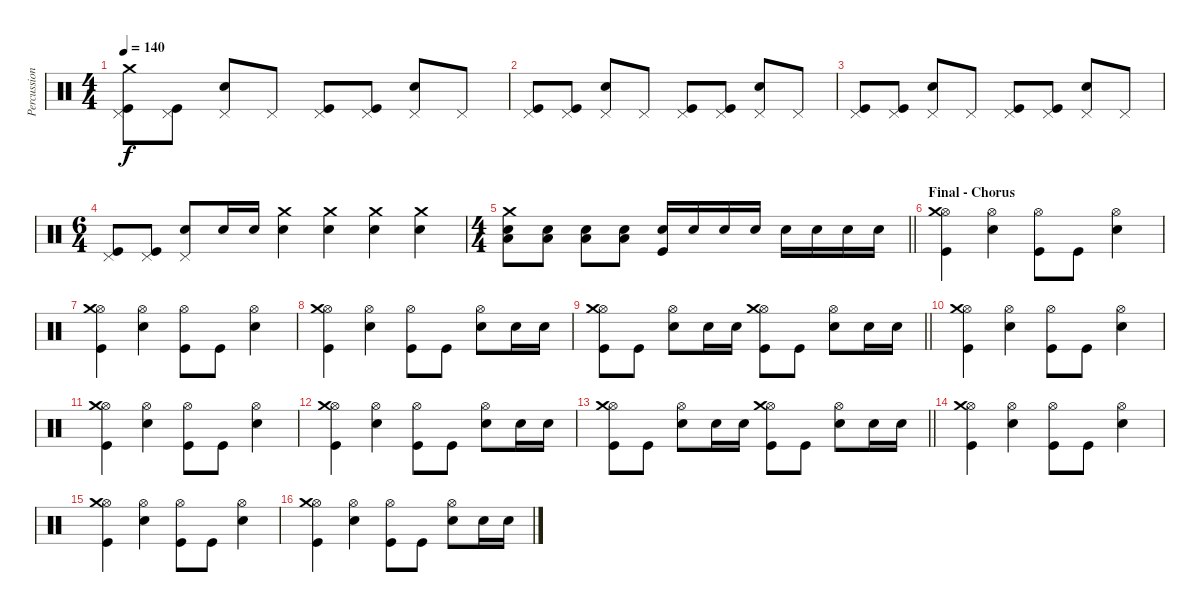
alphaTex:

\track ("Percussion" "Percussion") {instrument percussion}
\staff {score}
\articulation defaults
\ts (4 4)
\tempo 140
\clef neutral
\ks c
("Pedal Hi-Hat (hit)" "Kick (hit)" "Crash medium (hit)").8{dy f} ("Pedal Hi-Hat (hit)" "Kick (hit)").8 ("Pedal Hi-Hat (hit)" "Electric Snare (hit)").8 "Pedal Hi-Hat (hit)".8 ("Pedal Hi-Hat (hit)" "Kick (hit)").8 ("Pedal Hi-Hat (hit)" "Kick (hit)").8 ("Pedal Hi-Hat (hit)" "Electric Snare (hit)").8 "Pedal Hi-Hat (hit)".8 |
("Pedal Hi-Hat (hit)" "Kick (hit)").8 ("Pedal Hi-Hat (hit)" "Kick (hit)").8 ("Pedal Hi-Hat (hit)" "Electric Snare (hit)").8 "Pedal Hi-Hat (hit)".8 ("Pedal Hi-Hat (hit)" "Kick (hit)").8 ("Pedal Hi-Hat (hit)" "Kick (hit)").8 ("Pedal Hi-Hat (hit)" "Electric Snare (hit)").8 "Pedal Hi-Hat (hit)".8 |
("Pedal Hi-Hat (hit)" "Kick (hit)").8 ("Pedal Hi-Hat (hit)" "Kick (hit)").8 ("Pedal Hi-Hat (hit)" "Electric Snare (hit)").8 "Pedal Hi-Hat (hit)".8 ("Pedal Hi-Hat (hit)" "Kick (hit)").8 ("Pedal Hi-Hat (hit)" "Kick (hit)").8 ("Pedal Hi-Hat (hit)" "Electric Snare (hit)").8 "Pedal Hi-Hat (hit)".8 |
\ts (6 4)
("Pedal Hi-Hat (hit)" "Kick (hit)").8 ("Pedal Hi-Hat (hit)" "Kick (hit)").8 ("Pedal Hi-Hat (hit)" "Electric Snare (hit)").8 "Electric Snare (hit)".16 "Electric Snare (hit)".16 ("Electric Snare (hit)" "Crash medium (hit)").4 ("Electric Snare (hit)" "Crash medium (hit)").4 ("Electric Snare (hit)" "Crash medium (hit)").4 ("Electric Snare (hit)" "Crash medium (hit)").4 |
\ts (4 4)
\barLineRight lightlight
("Electric Snare (hit)" "Low Tom (hit)" "Crash medium (hit)").8 ("Electric Snare (hit)" "Low Tom (hit)").8 ("Electric Snare (hit)" "Low Tom (hit)").8 ("Electric Snare (hit)" "Low Tom (hit)").8 ("Electric Snare (hit)" "Kick (hit)").16 "Electric Snare (hit)".16 "Electric Snare (hit)".16 "Electric Snare (hit)".16 "Electric Snare (hit)".16 "Electric Snare (hit)".16 "Electric Snare (hit)".16 "Electric Snare (hit)".16 |
\section ("" "Final - Chorus")
("Hi-Hat (open)" "Kick (hit)" "Crash medium (hit)").4 ("Hi-Hat (open)" "Electric Snare (hit)").4 ("Hi-Hat (open)" "Kick (hit)").8 "Kick (hit)".8 ("Hi-Hat (open)" "Electric Snare (hit)").4 |
("Hi-Hat (open)" "Kick (hit)" "Crash medium (hit)").4 ("Hi-Hat (open)" "Electric Snare (hit)").4 ("Hi-Hat (open)" "Kick (hit)").8 "Kick (hit)".8 ("Hi-Hat (open)" "Electric Snare (hit)").4 |
("Hi-Hat (open)" "Kick (hit)" "Crash medium (hit)").4 ("Hi-Hat (open)" "Electric Snare (hit)").4 ("Hi-Hat (open)" "Kick (hit)").8 "Kick (hit)".8 ("Hi-Hat (open)" "Electric Snare (hit)").8 "Electric Snare (hit)".16 "Electric Snare (hit)".16 |
\barLineRight lightlight
("Hi-Hat (open)" "Kick (hit)" "Crash medium (hit)").8 "Kick (hit)".8 ("Hi-Hat (open)" "Electric Snare (hit)").8 "Electric Snare (hit)".16 "Electric Snare (hit)".16 ("Hi-Hat (open)" "Kick (hit)" "Crash medium (hit)").8 "Kick (hit)".8 ("Hi-Hat (open)" "Electric Snare (hit)").8 "Electric Snare (hit)".16 "Electric Snare (hit)".16 |
("Hi-Hat (open)" "Kick (hit)" "Crash medium (hit)").4 ("Hi-Hat (open)" "Electric Snare (hit)").4 ("Hi-Hat (open)" "Kick (hit)").8 "Kick (hit)".8 ("Hi-Hat (open)" "Electric Snare (hit)").4 |
("Hi-Hat (open)" "Kick (hit)" "Crash medium (hit)").4 ("Hi-Hat (open)" "Electric Snare (hit)").4 ("Hi-Hat (open)" "Kick (hit)").8 "Kick (hit)".8 ("Hi-Hat (open)" "Electric Snare (hit)").4 |
("Hi-Hat (open)" "Kick (hit)" "Crash medium (hit)").4 ("Hi-Hat (open)" "Electric Snare (hit)").4 ("Hi-Hat (open)" "Kick (hit)").8 "Kick (hit)".8 ("Hi-Hat (open)" "Electric Snare (hit)").8 "Electric Snare (hit)".16 "Electric Snare (hit)".16 |
\barLineRight lightlight
("Hi-Hat (open)" "Kick (hit)" "Crash medium (hit)").8 "Kick (hit)".8 ("Hi-Hat (open)" "Electric Snare (hit)").8 "Electric Snare (hit)".16 "Electric Snare (hit)".16 ("Hi-Hat (open)" "Kick (hit)" "Crash medium (hit)").8 "Kick (hit)".8 ("Hi-Hat (open)" "Electric Snare (hit)").8 "Electric Snare (hit)".16 "Electric Snare (hit)".16 |
("Hi-Hat (open)" "Kick (hit)" "Crash medium (hit)").4 ("Hi-Hat (open)" "Electric Snare (hit)").4 ("Hi-Hat (open)" "Kick (hit)").8 "Kick (hit)".8 ("Hi-Hat (open)" "Electric Snare (hit)").4 |
("Hi-Hat (open)" "Kick (hit)" "Crash medium (hit)").4 ("Hi-Hat (open)" "Electric Snare (hit)").4 ("Hi-Hat (open)" "Kick (hit)").8 "Kick (hit)".8 ("Hi-Hat (open)" "Electric Snare (hit)").4 |
("Hi-Hat (open)" "Kick (hit)" "Crash medium (hit)").4 ("Hi-Hat (open)" "Electric Snare (hit)").4 ("Hi-Hat (open)" "Kick (hit)").8 "Kick (hit)".8 ("Hi-Hat (open)" "Electric Snare (hit)").8 "Electric Snare (hit)".16 "Electric Snare (hit)".16
